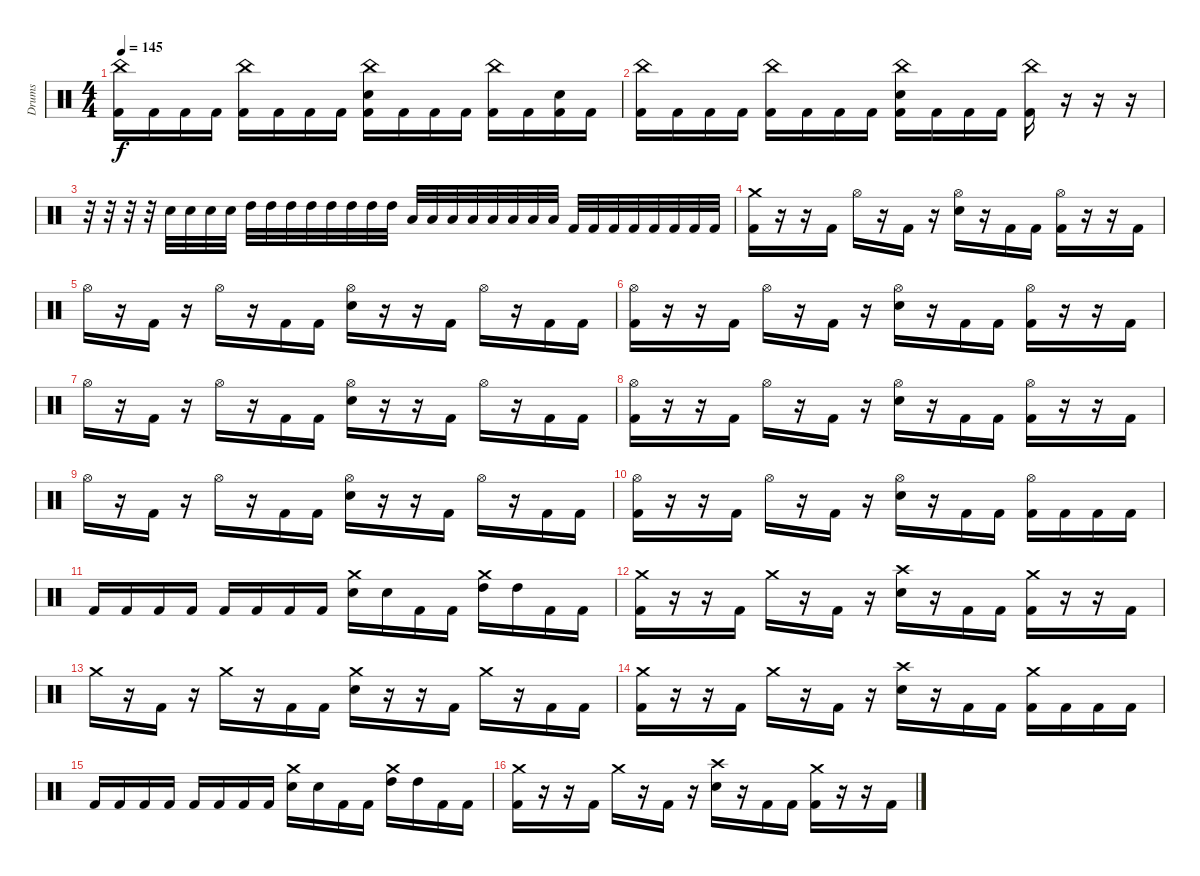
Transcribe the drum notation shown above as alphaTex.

\track ("Drums" "Drums") {instrument percussion}
\staff {score}
\articulation defaults
\ts (4 4)
\tempo 145
\clef neutral
\ks c
("China (hit)" "Kick (hit) 2").16{dy f} "Kick (hit) 2".16 "Kick (hit) 2".16 "Kick (hit) 2".16 ("China (hit)" "Kick (hit) 2").16 "Kick (hit) 2".16 "Kick (hit) 2".16 "Kick (hit) 2".16 ("China (hit)" "Electric Snare (hit)" "Kick (hit) 2").16 "Kick (hit) 2".16 "Kick (hit) 2".16 "Kick (hit) 2".16 ("China (hit)" "Kick (hit) 2").16 "Kick (hit) 2".16 ("Electric Snare (hit)" "Kick (hit) 2").16 "Kick (hit) 2".16 |
("China (hit)" "Kick (hit) 2").16 "Kick (hit) 2".16 "Kick (hit) 2".16 "Kick (hit) 2".16 ("China (hit)" "Kick (hit) 2").16 "Kick (hit) 2".16 "Kick (hit) 2".16 "Kick (hit) 2".16 ("China (hit)" "Electric Snare (hit)" "Kick (hit) 2").16 "Kick (hit) 2".16 "Kick (hit) 2".16 "Kick (hit) 2".16 ("China (hit)" "Kick (hit) 2").16 r.16 r.16 r.16 |
r.32 r.32 r.32 r.32 "Electric Snare (hit)".32 "Electric Snare (hit)".32 "Electric Snare (hit)".32 "Electric Snare (hit)".32 "High Tom (hit)".32 "High Tom (hit)".32 "High Tom (hit)".32 "High Tom (hit)".32 "High Tom (hit)".32 "High Tom (hit)".32 "High Tom (hit)".32 "High Tom (hit)".32 "Low Tom (hit)".32 "Low Tom (hit)".32 "Low Tom (hit)".32 "Low Tom (hit)".32 "Low Tom (hit)".32 "Low Tom (hit)".32 "Low Tom (hit)".32 "Low Tom (hit)".32 "Kick (hit) 2".32 "Kick (hit) 2".32 "Kick (hit) 2".32 "Kick (hit) 2".32 "Kick (hit) 2".32 "Kick (hit) 2".32 "Kick (hit) 2".32 "Kick (hit) 2".32 |
("Crash medium (hit)" "Kick (hit) 2").16 r.16 r.16 "Kick (hit) 2".16 "Hi-Hat (open)".16 r.16 "Kick (hit) 2".16 r.16 ("Hi-Hat (open)" "Electric Snare (hit)").16 r.16 "Kick (hit) 2".16 "Kick (hit) 2".16 ("Hi-Hat (open)" "Kick (hit) 2").16 r.16 r.16 "Kick (hit) 2".16 |
"Hi-Hat (open)".16 r.16 "Kick (hit) 2".16 r.16 "Hi-Hat (open)".16 r.16 "Kick (hit) 2".16 "Kick (hit) 2".16 ("Hi-Hat (open)" "Electric Snare (hit)").16 r.16 r.16 "Kick (hit) 2".16 "Hi-Hat (open)".16 r.16 "Kick (hit) 2".16 "Kick (hit) 2".16 |
("Hi-Hat (open)" "Kick (hit) 2").16 r.16 r.16 "Kick (hit) 2".16 "Hi-Hat (open)".16 r.16 "Kick (hit) 2".16 r.16 ("Hi-Hat (open)" "Electric Snare (hit)").16 r.16 "Kick (hit) 2".16 "Kick (hit) 2".16 ("Hi-Hat (open)" "Kick (hit) 2").16 r.16 r.16 "Kick (hit) 2".16 |
"Hi-Hat (open)".16 r.16 "Kick (hit) 2".16 r.16 "Hi-Hat (open)".16 r.16 "Kick (hit) 2".16 "Kick (hit) 2".16 ("Hi-Hat (open)" "Electric Snare (hit)").16 r.16 r.16 "Kick (hit) 2".16 "Hi-Hat (open)".16 r.16 "Kick (hit) 2".16 "Kick (hit) 2".16 |
("Hi-Hat (open)" "Kick (hit) 2").16 r.16 r.16 "Kick (hit) 2".16 "Hi-Hat (open)".16 r.16 "Kick (hit) 2".16 r.16 ("Hi-Hat (open)" "Electric Snare (hit)").16 r.16 "Kick (hit) 2".16 "Kick (hit) 2".16 ("Hi-Hat (open)" "Kick (hit) 2").16 r.16 r.16 "Kick (hit) 2".16 |
"Hi-Hat (open)".16 r.16 "Kick (hit) 2".16 r.16 "Hi-Hat (open)".16 r.16 "Kick (hit) 2".16 "Kick (hit) 2".16 ("Hi-Hat (open)" "Electric Snare (hit)").16 r.16 r.16 "Kick (hit) 2".16 "Hi-Hat (open)".16 r.16 "Kick (hit) 2".16 "Kick (hit) 2".16 |
("Hi-Hat (open)" "Kick (hit) 2").16 r.16 r.16 "Kick (hit) 2".16 "Hi-Hat (open)".16 r.16 "Kick (hit) 2".16 r.16 ("Hi-Hat (open)" "Electric Snare (hit)").16 r.16 "Kick (hit) 2".16 "Kick (hit) 2".16 ("Hi-Hat (open)" "Kick (hit) 2").16 "Kick (hit) 2".16 "Kick (hit) 2".16 "Kick (hit) 2".16 |
"Kick (hit) 2".16 "Kick (hit) 2".16 "Kick (hit) 2".16 "Kick (hit) 2".16 "Kick (hit) 2".16 "Kick (hit) 2".16 "Kick (hit) 2".16 "Kick (hit) 2".16 ("Crash medium (hit)" "Electric Snare (hit)").16 "Electric Snare (hit)".16 "Kick (hit) 2".16 "Kick (hit) 2".16 ("Crash medium (hit)" "High Tom (hit)").16 "High Tom (hit)".16 "Kick (hit) 2".16 "Kick (hit) 2".16 |
("Crash medium (hit)" "Kick (hit) 2").16 r.16 r.16 "Kick (hit) 2".16 "Crash medium (hit)".16 r.16 "Kick (hit) 2".16 r.16 ("Crash high (hit)" "Electric Snare (hit)").16 r.16 "Kick (hit) 2".16 "Kick (hit) 2".16 ("Crash medium (hit)" "Kick (hit) 2").16 r.16 r.16 "Kick (hit) 2".16 |
"Crash medium (hit)".16 r.16 "Kick (hit) 2".16 r.16 "Crash medium (hit)".16 r.16 "Kick (hit) 2".16 "Kick (hit) 2".16 ("Crash medium (hit)" "Electric Snare (hit)").16 r.16 r.16 "Kick (hit) 2".16 "Crash medium (hit)".16 r.16 "Kick (hit) 2".16 "Kick (hit) 2".16 |
("Crash medium (hit)" "Kick (hit) 2").16 r.16 r.16 "Kick (hit) 2".16 "Crash medium (hit)".16 r.16 "Kick (hit) 2".16 r.16 ("Crash high (hit)" "Electric Snare (hit)").16 r.16 "Kick (hit) 2".16 "Kick (hit) 2".16 ("Crash medium (hit)" "Kick (hit) 2").16 "Kick (hit) 2".16 "Kick (hit) 2".16 "Kick (hit) 2".16 |
"Kick (hit) 2".16 "Kick (hit) 2".16 "Kick (hit) 2".16 "Kick (hit) 2".16 "Kick (hit) 2".16 "Kick (hit) 2".16 "Kick (hit) 2".16 "Kick (hit) 2".16 ("Crash medium (hit)" "Electric Snare (hit)").16 "Electric Snare (hit)".16 "Kick (hit) 2".16 "Kick (hit) 2".16 ("Crash medium (hit)" "High Tom (hit)").16 "High Tom (hit)".16 "Kick (hit) 2".16 "Kick (hit) 2".16 |
("Crash medium (hit)" "Kick (hit) 2").16 r.16 r.16 "Kick (hit) 2".16 "Crash medium (hit)".16 r.16 "Kick (hit) 2".16 r.16 ("Crash high (hit)" "Electric Snare (hit)").16 r.16 "Kick (hit) 2".16 "Kick (hit) 2".16 ("Crash medium (hit)" "Kick (hit) 2").16 r.16 r.16 "Kick (hit) 2".16
